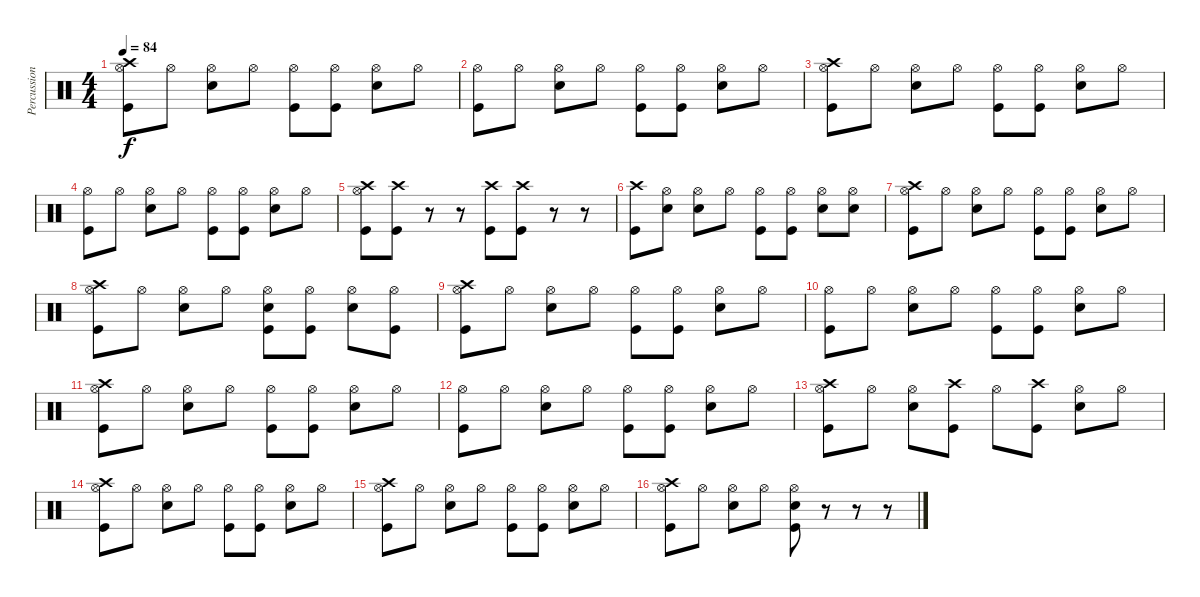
\track ("Percussion" "Percussion") {instrument percussion}
\staff {score}
\articulation defaults
\ts (4 4)
\tempo 84
\clef neutral
\ks c
("Crash high (hit)" "Hi-Hat (open)" "Kick (hit)").8{dy f} "Hi-Hat (open)".8 ("Hi-Hat (open)" "Electric Snare (hit)").8 "Hi-Hat (open)".8 ("Hi-Hat (open)" "Kick (hit)").8 ("Hi-Hat (open)" "Kick (hit)").8 ("Hi-Hat (open)" "Electric Snare (hit)").8 "Hi-Hat (open)".8 |
("Hi-Hat (open)" "Kick (hit)").8 "Hi-Hat (open)".8 ("Hi-Hat (open)" "Electric Snare (hit)").8 "Hi-Hat (open)".8 ("Hi-Hat (open)" "Kick (hit)").8 ("Hi-Hat (open)" "Kick (hit)").8 ("Hi-Hat (open)" "Electric Snare (hit)").8 "Hi-Hat (open)".8 |
("Crash high (hit)" "Hi-Hat (open)" "Kick (hit)").8 "Hi-Hat (open)".8 ("Hi-Hat (open)" "Electric Snare (hit)").8 "Hi-Hat (open)".8 ("Hi-Hat (open)" "Kick (hit)").8 ("Hi-Hat (open)" "Kick (hit)").8 ("Hi-Hat (open)" "Electric Snare (hit)").8 "Hi-Hat (open)".8 |
("Hi-Hat (open)" "Kick (hit)").8 "Hi-Hat (open)".8 ("Hi-Hat (open)" "Electric Snare (hit)").8 "Hi-Hat (open)".8 ("Hi-Hat (open)" "Kick (hit)").8 ("Hi-Hat (open)" "Kick (hit)").8 ("Hi-Hat (open)" "Electric Snare (hit)").8 "Hi-Hat (open)".8 |
("Crash high (hit)" "Hi-Hat (open)" "Kick (hit)").8 ("Crash high (hit)" "Kick (hit)").8 r.8 r.8 ("Crash high (hit)" "Kick (hit)").8 ("Crash high (hit)" "Kick (hit)").8 r.8 r.8 |
("Crash high (hit)" "Kick (hit)").8 ("Hi-Hat (open)" "Electric Snare (hit)").8 ("Hi-Hat (open)" "Electric Snare (hit)").8 "Hi-Hat (open)".8 ("Hi-Hat (open)" "Kick (hit)").8 ("Hi-Hat (open)" "Kick (hit)").8 ("Hi-Hat (open)" "Electric Snare (hit)").8 ("Hi-Hat (open)" "Electric Snare (hit)").8 |
("Crash high (hit)" "Hi-Hat (open)" "Kick (hit)").8 "Hi-Hat (open)".8 ("Hi-Hat (open)" "Electric Snare (hit)").8 "Hi-Hat (open)".8 ("Hi-Hat (open)" "Kick (hit)").8 ("Hi-Hat (open)" "Kick (hit)").8 ("Hi-Hat (open)" "Electric Snare (hit)").8 "Hi-Hat (open)".8 |
("Crash high (hit)" "Hi-Hat (open)" "Kick (hit)").8 "Hi-Hat (open)".8 ("Hi-Hat (open)" "Electric Snare (hit)").8 "Hi-Hat (open)".8 ("Hi-Hat (open)" "Electric Snare (hit)" "Kick (hit)").8 ("Hi-Hat (open)" "Kick (hit)").8 ("Hi-Hat (open)" "Electric Snare (hit)").8 ("Hi-Hat (open)" "Kick (hit)").8 |
("Crash high (hit)" "Hi-Hat (open)" "Kick (hit)").8 "Hi-Hat (open)".8 ("Hi-Hat (open)" "Electric Snare (hit)").8 "Hi-Hat (open)".8 ("Hi-Hat (open)" "Kick (hit)").8 ("Hi-Hat (open)" "Kick (hit)").8 ("Hi-Hat (open)" "Electric Snare (hit)").8 "Hi-Hat (open)".8 |
("Hi-Hat (open)" "Kick (hit)").8 "Hi-Hat (open)".8 ("Hi-Hat (open)" "Electric Snare (hit)").8 "Hi-Hat (open)".8 ("Hi-Hat (open)" "Kick (hit)").8 ("Hi-Hat (open)" "Kick (hit)").8 ("Hi-Hat (open)" "Electric Snare (hit)").8 "Hi-Hat (open)".8 |
("Crash high (hit)" "Hi-Hat (open)" "Kick (hit)").8 "Hi-Hat (open)".8 ("Hi-Hat (open)" "Electric Snare (hit)").8 "Hi-Hat (open)".8 ("Hi-Hat (open)" "Kick (hit)").8 ("Hi-Hat (open)" "Kick (hit)").8 ("Hi-Hat (open)" "Electric Snare (hit)").8 "Hi-Hat (open)".8 |
("Hi-Hat (open)" "Kick (hit)").8 "Hi-Hat (open)".8 ("Hi-Hat (open)" "Electric Snare (hit)").8 "Hi-Hat (open)".8 ("Hi-Hat (open)" "Kick (hit)").8 ("Hi-Hat (open)" "Kick (hit)").8 ("Hi-Hat (open)" "Electric Snare (hit)").8 "Hi-Hat (open)".8 |
("Crash high (hit)" "Hi-Hat (open)" "Kick (hit)").8 "Hi-Hat (open)".8 ("Hi-Hat (open)" "Electric Snare (hit)").8 ("Crash high (hit)" "Kick (hit)").8 "Hi-Hat (open)".8 ("Crash high (hit)" "Kick (hit)").8 ("Hi-Hat (open)" "Electric Snare (hit)").8 "Hi-Hat (open)".8 |
("Crash high (hit)" "Hi-Hat (open)" "Kick (hit)").8 "Hi-Hat (open)".8 ("Hi-Hat (open)" "Electric Snare (hit)").8 "Hi-Hat (open)".8 ("Hi-Hat (open)" "Kick (hit)").8 ("Hi-Hat (open)" "Kick (hit)").8 ("Hi-Hat (open)" "Electric Snare (hit)").8 "Hi-Hat (open)".8 |
("Crash high (hit)" "Hi-Hat (open)" "Kick (hit)").8 "Hi-Hat (open)".8 ("Hi-Hat (open)" "Electric Snare (hit)").8 "Hi-Hat (open)".8 ("Hi-Hat (open)" "Kick (hit)").8 ("Hi-Hat (open)" "Kick (hit)").8 ("Hi-Hat (open)" "Electric Snare (hit)").8 "Hi-Hat (open)".8 |
("Crash high (hit)" "Hi-Hat (open)" "Kick (hit)").8 "Hi-Hat (open)".8 ("Hi-Hat (open)" "Electric Snare (hit)").8 "Hi-Hat (open)".8 ("Hi-Hat (open)" "Electric Snare (hit)" "Kick (hit)").8 r.8 r.8 r.8
